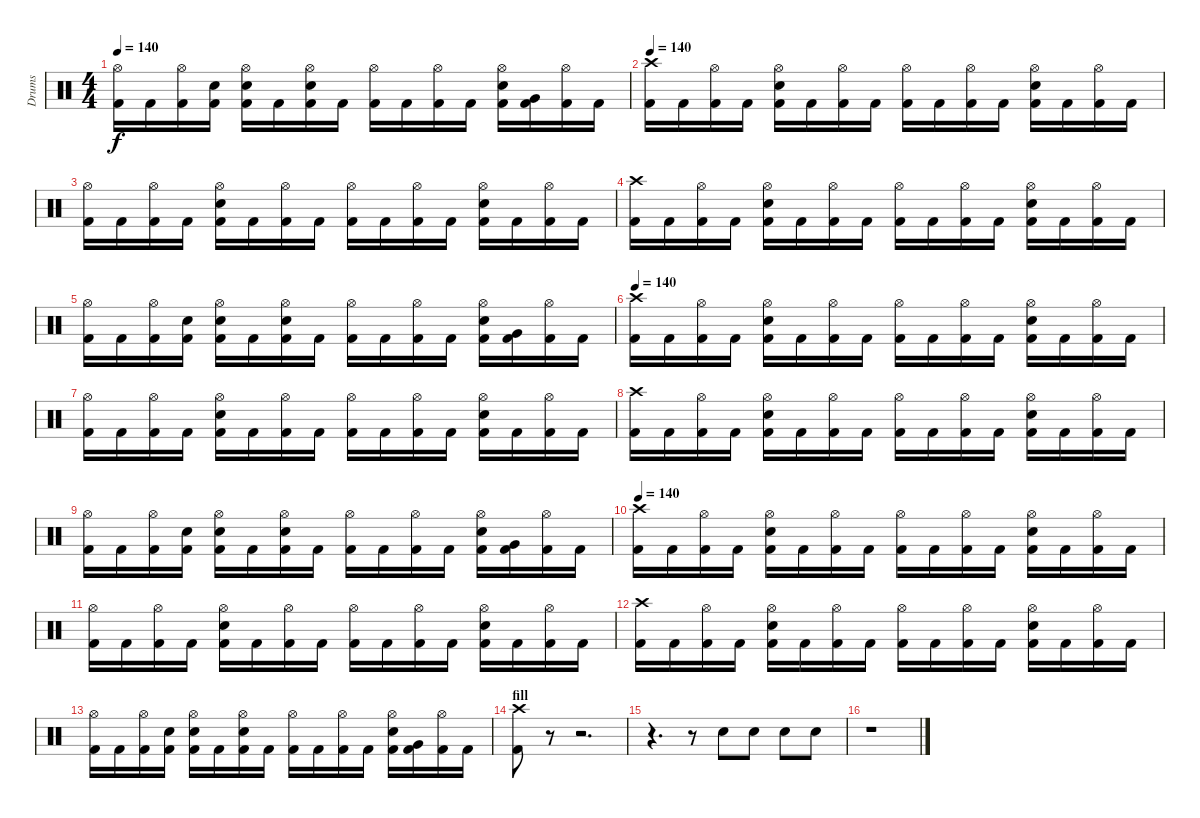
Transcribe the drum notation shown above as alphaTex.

\track ("Drums" "Drums") {instrument percussion}
\staff {score}
\articulation defaults
\ts (4 4)
\tempo 140
\clef neutral
\ks c
("Hi-Hat (open)" "Kick (hit) 2").16{dy f} "Kick (hit) 2".16 ("Hi-Hat (open)" "Kick (hit) 2").16 ("Snare (hit) 2" "Kick (hit) 2").16 ("Hi-Hat (open)" "Snare (hit) 2" "Kick (hit) 2").16 "Kick (hit) 2".16 ("Hi-Hat (open)" "Snare (hit) 2" "Kick (hit) 2").16 "Kick (hit) 2".16 ("Hi-Hat (open)" "Kick (hit) 2").16 "Kick (hit) 2".16 ("Hi-Hat (open)" "Kick (hit) 2").16 "Kick (hit) 2".16 ("Hi-Hat (open)" "Snare (hit) 2" "Kick (hit) 2").16 ("Very Low Tom (hit)" "Kick (hit) 2").16 ("Hi-Hat (open)" "Kick (hit) 2").16 "Kick (hit) 2".16 |
\tempo 140
("Crash high (hit)" "Kick (hit) 2").16 "Kick (hit) 2".16 ("Hi-Hat (open)" "Kick (hit) 2").16 "Kick (hit) 2".16 ("Hi-Hat (open)" "Snare (hit) 2" "Kick (hit) 2").16 "Kick (hit) 2".16 ("Hi-Hat (open)" "Kick (hit) 2").16 "Kick (hit) 2".16 ("Hi-Hat (open)" "Kick (hit) 2").16 "Kick (hit) 2".16 ("Hi-Hat (open)" "Kick (hit) 2").16 "Kick (hit) 2".16 ("Hi-Hat (open)" "Snare (hit) 2" "Kick (hit) 2").16 "Kick (hit) 2".16 ("Hi-Hat (open)" "Kick (hit) 2").16 "Kick (hit) 2".16 |
("Hi-Hat (open)" "Kick (hit) 2").16 "Kick (hit) 2".16 ("Hi-Hat (open)" "Kick (hit) 2").16 "Kick (hit) 2".16 ("Hi-Hat (open)" "Snare (hit) 2" "Kick (hit) 2").16 "Kick (hit) 2".16 ("Hi-Hat (open)" "Kick (hit) 2").16 "Kick (hit) 2".16 ("Hi-Hat (open)" "Kick (hit) 2").16 "Kick (hit) 2".16 ("Hi-Hat (open)" "Kick (hit) 2").16 "Kick (hit) 2".16 ("Hi-Hat (open)" "Snare (hit) 2" "Kick (hit) 2").16 "Kick (hit) 2".16 ("Hi-Hat (open)" "Kick (hit) 2").16 "Kick (hit) 2".16 |
("Crash high (hit)" "Kick (hit) 2").16 "Kick (hit) 2".16 ("Hi-Hat (open)" "Kick (hit) 2").16 "Kick (hit) 2".16 ("Hi-Hat (open)" "Snare (hit) 2" "Kick (hit) 2").16 "Kick (hit) 2".16 ("Hi-Hat (open)" "Kick (hit) 2").16 "Kick (hit) 2".16 ("Hi-Hat (open)" "Kick (hit) 2").16 "Kick (hit) 2".16 ("Hi-Hat (open)" "Kick (hit) 2").16 "Kick (hit) 2".16 ("Hi-Hat (open)" "Snare (hit) 2" "Kick (hit) 2").16 "Kick (hit) 2".16 ("Hi-Hat (open)" "Kick (hit) 2").16 "Kick (hit) 2".16 |
("Hi-Hat (open)" "Kick (hit) 2").16 "Kick (hit) 2".16 ("Hi-Hat (open)" "Kick (hit) 2").16 ("Snare (hit) 2" "Kick (hit) 2").16 ("Hi-Hat (open)" "Snare (hit) 2" "Kick (hit) 2").16 "Kick (hit) 2".16 ("Hi-Hat (open)" "Snare (hit) 2" "Kick (hit) 2").16 "Kick (hit) 2".16 ("Hi-Hat (open)" "Kick (hit) 2").16 "Kick (hit) 2".16 ("Hi-Hat (open)" "Kick (hit) 2").16 "Kick (hit) 2".16 ("Hi-Hat (open)" "Snare (hit) 2" "Kick (hit) 2").16 ("Very Low Tom (hit)" "Kick (hit) 2").16 ("Hi-Hat (open)" "Kick (hit) 2").16 "Kick (hit) 2".16 |
\tempo 140
("Crash high (hit)" "Kick (hit) 2").16 "Kick (hit) 2".16 ("Hi-Hat (open)" "Kick (hit) 2").16 "Kick (hit) 2".16 ("Hi-Hat (open)" "Snare (hit) 2" "Kick (hit) 2").16 "Kick (hit) 2".16 ("Hi-Hat (open)" "Kick (hit) 2").16 "Kick (hit) 2".16 ("Hi-Hat (open)" "Kick (hit) 2").16 "Kick (hit) 2".16 ("Hi-Hat (open)" "Kick (hit) 2").16 "Kick (hit) 2".16 ("Hi-Hat (open)" "Snare (hit) 2" "Kick (hit) 2").16 "Kick (hit) 2".16 ("Hi-Hat (open)" "Kick (hit) 2").16 "Kick (hit) 2".16 |
("Hi-Hat (open)" "Kick (hit) 2").16 "Kick (hit) 2".16 ("Hi-Hat (open)" "Kick (hit) 2").16 "Kick (hit) 2".16 ("Hi-Hat (open)" "Snare (hit) 2" "Kick (hit) 2").16 "Kick (hit) 2".16 ("Hi-Hat (open)" "Kick (hit) 2").16 "Kick (hit) 2".16 ("Hi-Hat (open)" "Kick (hit) 2").16 "Kick (hit) 2".16 ("Hi-Hat (open)" "Kick (hit) 2").16 "Kick (hit) 2".16 ("Hi-Hat (open)" "Snare (hit) 2" "Kick (hit) 2").16 "Kick (hit) 2".16 ("Hi-Hat (open)" "Kick (hit) 2").16 "Kick (hit) 2".16 |
("Crash high (hit)" "Kick (hit) 2").16 "Kick (hit) 2".16 ("Hi-Hat (open)" "Kick (hit) 2").16 "Kick (hit) 2".16 ("Hi-Hat (open)" "Snare (hit) 2" "Kick (hit) 2").16 "Kick (hit) 2".16 ("Hi-Hat (open)" "Kick (hit) 2").16 "Kick (hit) 2".16 ("Hi-Hat (open)" "Kick (hit) 2").16 "Kick (hit) 2".16 ("Hi-Hat (open)" "Kick (hit) 2").16 "Kick (hit) 2".16 ("Hi-Hat (open)" "Snare (hit) 2" "Kick (hit) 2").16 "Kick (hit) 2".16 ("Hi-Hat (open)" "Kick (hit) 2").16 "Kick (hit) 2".16 |
("Hi-Hat (open)" "Kick (hit) 2").16 "Kick (hit) 2".16 ("Hi-Hat (open)" "Kick (hit) 2").16 ("Snare (hit) 2" "Kick (hit) 2").16 ("Hi-Hat (open)" "Snare (hit) 2" "Kick (hit) 2").16 "Kick (hit) 2".16 ("Hi-Hat (open)" "Snare (hit) 2" "Kick (hit) 2").16 "Kick (hit) 2".16 ("Hi-Hat (open)" "Kick (hit) 2").16 "Kick (hit) 2".16 ("Hi-Hat (open)" "Kick (hit) 2").16 "Kick (hit) 2".16 ("Hi-Hat (open)" "Snare (hit) 2" "Kick (hit) 2").16 ("Very Low Tom (hit)" "Kick (hit) 2").16 ("Hi-Hat (open)" "Kick (hit) 2").16 "Kick (hit) 2".16 |
\tempo 140
("Crash high (hit)" "Kick (hit) 2").16 "Kick (hit) 2".16 ("Hi-Hat (open)" "Kick (hit) 2").16 "Kick (hit) 2".16 ("Hi-Hat (open)" "Snare (hit) 2" "Kick (hit) 2").16 "Kick (hit) 2".16 ("Hi-Hat (open)" "Kick (hit) 2").16 "Kick (hit) 2".16 ("Hi-Hat (open)" "Kick (hit) 2").16 "Kick (hit) 2".16 ("Hi-Hat (open)" "Kick (hit) 2").16 "Kick (hit) 2".16 ("Hi-Hat (open)" "Snare (hit) 2" "Kick (hit) 2").16 "Kick (hit) 2".16 ("Hi-Hat (open)" "Kick (hit) 2").16 "Kick (hit) 2".16 |
("Hi-Hat (open)" "Kick (hit) 2").16 "Kick (hit) 2".16 ("Hi-Hat (open)" "Kick (hit) 2").16 "Kick (hit) 2".16 ("Hi-Hat (open)" "Snare (hit) 2" "Kick (hit) 2").16 "Kick (hit) 2".16 ("Hi-Hat (open)" "Kick (hit) 2").16 "Kick (hit) 2".16 ("Hi-Hat (open)" "Kick (hit) 2").16 "Kick (hit) 2".16 ("Hi-Hat (open)" "Kick (hit) 2").16 "Kick (hit) 2".16 ("Hi-Hat (open)" "Snare (hit) 2" "Kick (hit) 2").16 "Kick (hit) 2".16 ("Hi-Hat (open)" "Kick (hit) 2").16 "Kick (hit) 2".16 |
("Crash high (hit)" "Kick (hit) 2").16 "Kick (hit) 2".16 ("Hi-Hat (open)" "Kick (hit) 2").16 "Kick (hit) 2".16 ("Hi-Hat (open)" "Snare (hit) 2" "Kick (hit) 2").16 "Kick (hit) 2".16 ("Hi-Hat (open)" "Kick (hit) 2").16 "Kick (hit) 2".16 ("Hi-Hat (open)" "Kick (hit) 2").16 "Kick (hit) 2".16 ("Hi-Hat (open)" "Kick (hit) 2").16 "Kick (hit) 2".16 ("Hi-Hat (open)" "Snare (hit) 2" "Kick (hit) 2").16 "Kick (hit) 2".16 ("Hi-Hat (open)" "Kick (hit) 2").16 "Kick (hit) 2".16 |
("Hi-Hat (open)" "Kick (hit) 2").16 "Kick (hit) 2".16 ("Hi-Hat (open)" "Kick (hit) 2").16 ("Snare (hit) 2" "Kick (hit) 2").16 ("Hi-Hat (open)" "Snare (hit) 2" "Kick (hit) 2").16 "Kick (hit) 2".16 ("Hi-Hat (open)" "Snare (hit) 2" "Kick (hit) 2").16 "Kick (hit) 2".16 ("Hi-Hat (open)" "Kick (hit) 2").16 "Kick (hit) 2".16 ("Hi-Hat (open)" "Kick (hit) 2").16 "Kick (hit) 2".16 ("Hi-Hat (open)" "Snare (hit) 2" "Kick (hit) 2").16 ("Very Low Tom (hit)" "Kick (hit) 2").16 ("Hi-Hat (open)" "Kick (hit) 2").16 "Kick (hit) 2".16 |
\section ("" "fill")
("Crash high (hit)" "Kick (hit) 2").8 r.8 r.2{d} |
r.4{d} r.8 "Snare (hit) 2".8 "Snare (hit) 2".8 "Snare (hit) 2".8 "Snare (hit) 2".8 |
r.1
